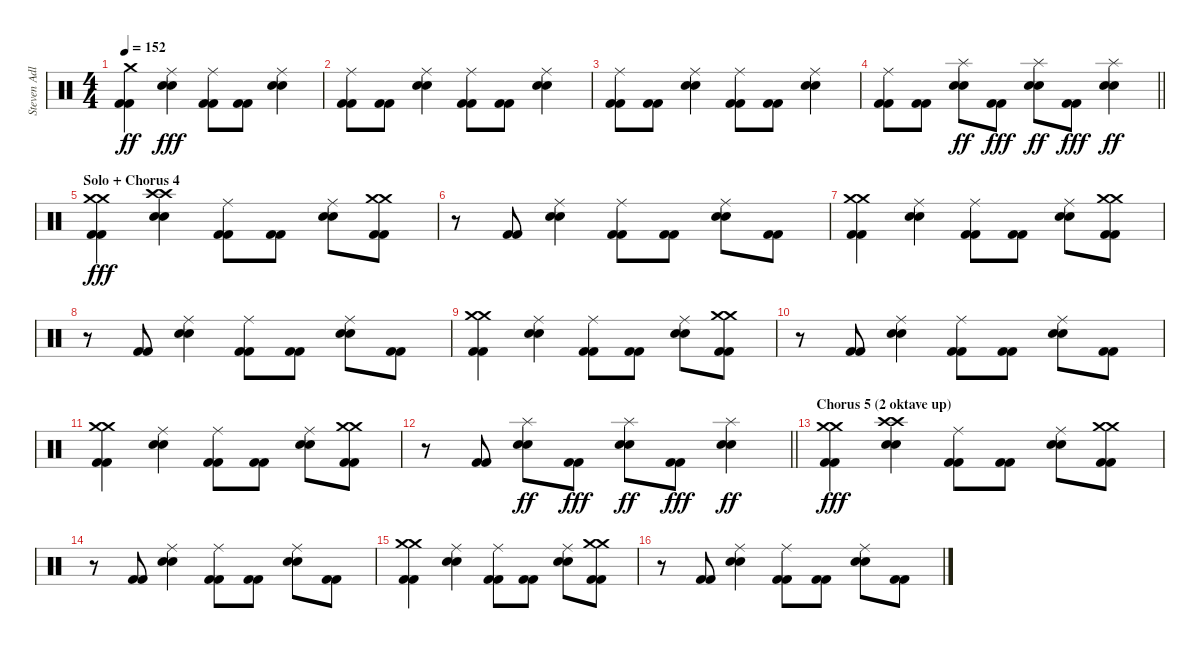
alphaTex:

\track ("Steven Adler" "Steven Adl") {instrument percussion}
\staff {score}
\articulation defaults
\ts (4 4)
\tempo 152
\clef neutral
\ks c
("Crash medium (hit)" "Kick (hit) 2" "Kick (hit) 2").4{dy ff} ("Ride (middle)" "Electric Snare (hit)" "Electric Snare (hit)").4{dy fff} ("Ride (middle)" "Kick (hit) 2" "Kick (hit) 2").8 ("Kick (hit) 2" "Kick (hit) 2").8 ("Ride (middle)" "Electric Snare (hit)" "Electric Snare (hit)").4 |
("Ride (middle)" "Kick (hit) 2" "Kick (hit) 2").8 ("Kick (hit) 2" "Kick (hit) 2").8 ("Ride (middle)" "Electric Snare (hit)" "Electric Snare (hit)").4 ("Ride (middle)" "Kick (hit) 2" "Kick (hit) 2").8 ("Kick (hit) 2" "Kick (hit) 2").8 ("Ride (middle)" "Electric Snare (hit)" "Electric Snare (hit)").4 |
("Ride (middle)" "Kick (hit) 2" "Kick (hit) 2").8 ("Kick (hit) 2" "Kick (hit) 2").8 ("Ride (middle)" "Electric Snare (hit)" "Electric Snare (hit)").4 ("Ride (middle)" "Kick (hit) 2" "Kick (hit) 2").8 ("Kick (hit) 2" "Kick (hit) 2").8 ("Ride (middle)" "Electric Snare (hit)" "Electric Snare (hit)").4 |
\barLineRight lightlight
("Ride (middle)" "Kick (hit) 2" "Kick (hit) 2").8 ("Kick (hit) 2" "Kick (hit) 2").8 ("Splash (hit)" "Electric Snare (hit)" "Electric Snare (hit)").8{dy ff} ("Kick (hit) 2" "Kick (hit) 2").8{dy fff} ("Splash (hit)" "Electric Snare (hit)" "Electric Snare (hit)").8{dy ff} ("Kick (hit) 2" "Kick (hit) 2").8{dy fff} ("Splash (hit)" "Electric Snare (hit)" "Electric Snare (hit)").4{dy ff} |
\section ("" "Solo + Chorus 4")
("Crash medium (hit)" "Crash medium (hit)" "Kick (hit) 2" "Kick (hit) 2").4{dy fff} ("Crash high (hit)" "Crash high (hit)" "Electric Snare (hit)" "Electric Snare (hit)").4 ("Ride (middle)" "Kick (hit) 2" "Kick (hit) 2").8 ("Kick (hit) 2" "Kick (hit) 2").8 ("Ride (middle)" "Electric Snare (hit)" "Electric Snare (hit)").8 ("Crash medium (hit)" "Crash medium (hit)" "Kick (hit) 2" "Kick (hit) 2").8 |
r.8 ("Kick (hit) 2" "Kick (hit) 2").8 ("Ride (middle)" "Electric Snare (hit)" "Electric Snare (hit)").4 ("Ride (middle)" "Kick (hit) 2" "Kick (hit) 2").8 ("Kick (hit) 2" "Kick (hit) 2").8 ("Ride (middle)" "Electric Snare (hit)" "Electric Snare (hit)").8 ("Kick (hit) 2" "Kick (hit) 2").8 |
("Crash medium (hit)" "Crash medium (hit)" "Kick (hit) 2" "Kick (hit) 2").4 ("Ride (middle)" "Electric Snare (hit)" "Electric Snare (hit)").4 ("Ride (middle)" "Kick (hit) 2" "Kick (hit) 2").8 ("Kick (hit) 2" "Kick (hit) 2").8 ("Ride (middle)" "Electric Snare (hit)" "Electric Snare (hit)").8 ("Crash medium (hit)" "Crash medium (hit)" "Kick (hit) 2" "Kick (hit) 2").8 |
r.8 ("Kick (hit) 2" "Kick (hit) 2").8 ("Ride (middle)" "Electric Snare (hit)" "Electric Snare (hit)").4 ("Ride (middle)" "Kick (hit) 2" "Kick (hit) 2").8 ("Kick (hit) 2" "Kick (hit) 2").8 ("Ride (middle)" "Electric Snare (hit)" "Electric Snare (hit)").8 ("Kick (hit) 2" "Kick (hit) 2").8 |
("Crash medium (hit)" "Crash medium (hit)" "Kick (hit) 2" "Kick (hit) 2").4 ("Ride (middle)" "Electric Snare (hit)" "Electric Snare (hit)").4 ("Ride (middle)" "Kick (hit) 2" "Kick (hit) 2").8 ("Kick (hit) 2" "Kick (hit) 2").8 ("Ride (middle)" "Electric Snare (hit)" "Electric Snare (hit)").8 ("Crash medium (hit)" "Crash medium (hit)" "Kick (hit) 2" "Kick (hit) 2").8 |
r.8 ("Kick (hit) 2" "Kick (hit) 2").8 ("Ride (middle)" "Electric Snare (hit)" "Electric Snare (hit)").4 ("Ride (middle)" "Kick (hit) 2" "Kick (hit) 2").8 ("Kick (hit) 2" "Kick (hit) 2").8 ("Ride (middle)" "Electric Snare (hit)" "Electric Snare (hit)").8 ("Kick (hit) 2" "Kick (hit) 2").8 |
("Crash medium (hit)" "Crash medium (hit)" "Kick (hit) 2" "Kick (hit) 2").4 ("Ride (middle)" "Electric Snare (hit)" "Electric Snare (hit)").4 ("Ride (middle)" "Kick (hit) 2" "Kick (hit) 2").8 ("Kick (hit) 2" "Kick (hit) 2").8 ("Ride (middle)" "Electric Snare (hit)" "Electric Snare (hit)").8 ("Crash medium (hit)" "Crash medium (hit)" "Kick (hit) 2" "Kick (hit) 2").8 |
\barLineRight lightlight
r.8 ("Kick (hit) 2" "Kick (hit) 2").8 ("Splash (hit)" "Electric Snare (hit)" "Electric Snare (hit)").8{dy ff} ("Kick (hit) 2" "Kick (hit) 2").8{dy fff} ("Splash (hit)" "Electric Snare (hit)" "Electric Snare (hit)").8{dy ff} ("Kick (hit) 2" "Kick (hit) 2").8{dy fff} ("Splash (hit)" "Electric Snare (hit)" "Electric Snare (hit)").4{dy ff} |
\section ("" "Chorus 5 (2 oktave up)")
("Crash medium (hit)" "Crash medium (hit)" "Kick (hit) 2" "Kick (hit) 2").4{dy fff} ("Crash high (hit)" "Crash high (hit)" "Electric Snare (hit)" "Electric Snare (hit)").4 ("Ride (middle)" "Kick (hit) 2" "Kick (hit) 2").8 ("Kick (hit) 2" "Kick (hit) 2").8 ("Ride (middle)" "Electric Snare (hit)" "Electric Snare (hit)").8 ("Crash medium (hit)" "Crash medium (hit)" "Kick (hit) 2" "Kick (hit) 2").8 |
r.8 ("Kick (hit) 2" "Kick (hit) 2").8 ("Ride (middle)" "Electric Snare (hit)" "Electric Snare (hit)").4 ("Ride (middle)" "Kick (hit) 2" "Kick (hit) 2").8 ("Kick (hit) 2" "Kick (hit) 2").8 ("Ride (middle)" "Electric Snare (hit)" "Electric Snare (hit)").8 ("Kick (hit) 2" "Kick (hit) 2").8 |
("Crash medium (hit)" "Crash medium (hit)" "Kick (hit) 2" "Kick (hit) 2").4 ("Ride (middle)" "Electric Snare (hit)" "Electric Snare (hit)").4 ("Ride (middle)" "Kick (hit) 2" "Kick (hit) 2").8 ("Kick (hit) 2" "Kick (hit) 2").8 ("Ride (middle)" "Electric Snare (hit)" "Electric Snare (hit)").8 ("Crash medium (hit)" "Crash medium (hit)" "Kick (hit) 2" "Kick (hit) 2").8 |
r.8 ("Kick (hit) 2" "Kick (hit) 2").8 ("Ride (middle)" "Electric Snare (hit)" "Electric Snare (hit)").4 ("Ride (middle)" "Kick (hit) 2" "Kick (hit) 2").8 ("Kick (hit) 2" "Kick (hit) 2").8 ("Ride (middle)" "Electric Snare (hit)" "Electric Snare (hit)").8 ("Kick (hit) 2" "Kick (hit) 2").8
